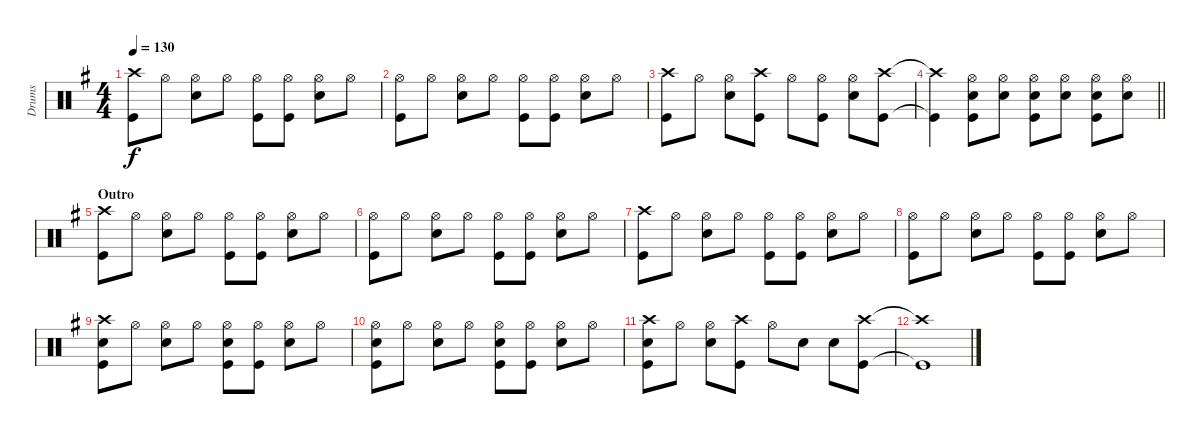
\track ("Drums" "Drums") {instrument percussion}
\staff {score}
\articulation defaults
\ts (4 4)
\tempo 130
\clef neutral
\ks g
("Crash high (hit)" "Kick (hit)").8{dy f} "Hi-Hat (open)".8 ("Hi-Hat (open)" "Snare (hit) 2").8 "Hi-Hat (open)".8 ("Hi-Hat (open)" "Kick (hit)").8 ("Hi-Hat (open)" "Kick (hit)").8 ("Hi-Hat (open)" "Snare (hit) 2").8 "Hi-Hat (open)".8 |
("Hi-Hat (open)" "Kick (hit)").8 "Hi-Hat (open)".8 ("Hi-Hat (open)" "Snare (hit) 2").8 "Hi-Hat (open)".8 ("Hi-Hat (open)" "Kick (hit)").8 ("Hi-Hat (open)" "Kick (hit)").8 ("Hi-Hat (open)" "Snare (hit) 2").8 "Hi-Hat (open)".8 |
("Crash high (hit)" "Kick (hit)").8 "Hi-Hat (open)".8 ("Hi-Hat (open)" "Snare (hit) 2").8 ("Crash high (hit)" "Kick (hit)").8 "Hi-Hat (open)".8 ("Hi-Hat (open)" "Kick (hit)").8 ("Hi-Hat (open)" "Snare (hit) 2").8 ("Crash high (hit)" "Kick (hit)").8 |
\barLineRight lightlight
("Crash high (hit)"{t} "Kick (hit)"{t}).4 ("Hi-Hat (open)" "Snare (hit) 2" "Kick (hit)").8 ("Hi-Hat (open)" "Snare (hit) 2").8 ("Hi-Hat (open)" "Snare (hit) 2" "Kick (hit)").8 ("Hi-Hat (open)" "Snare (hit) 2").8 ("Hi-Hat (open)" "Snare (hit) 2" "Kick (hit)").8 ("Hi-Hat (open)" "Snare (hit) 2").8 |
\section ("" "Outro")
("Crash high (hit)" "Kick (hit)").8 "Hi-Hat (open)".8 ("Hi-Hat (open)" "Snare (hit) 2").8 "Hi-Hat (open)".8 ("Hi-Hat (open)" "Kick (hit)").8 ("Hi-Hat (open)" "Kick (hit)").8 ("Hi-Hat (open)" "Snare (hit) 2").8 "Hi-Hat (open)".8 |
("Hi-Hat (open)" "Kick (hit)").8 "Hi-Hat (open)".8 ("Hi-Hat (open)" "Snare (hit) 2").8 "Hi-Hat (open)".8 ("Hi-Hat (open)" "Kick (hit)").8 ("Hi-Hat (open)" "Kick (hit)").8 ("Hi-Hat (open)" "Snare (hit) 2").8 "Hi-Hat (open)".8 |
("Crash high (hit)" "Kick (hit)").8 "Hi-Hat (open)".8 ("Hi-Hat (open)" "Snare (hit) 2").8 "Hi-Hat (open)".8 ("Hi-Hat (open)" "Kick (hit)").8 ("Hi-Hat (open)" "Kick (hit)").8 ("Hi-Hat (open)" "Snare (hit) 2").8 "Hi-Hat (open)".8 |
("Hi-Hat (open)" "Kick (hit)").8 "Hi-Hat (open)".8 ("Hi-Hat (open)" "Snare (hit) 2").8 "Hi-Hat (open)".8 ("Hi-Hat (open)" "Kick (hit)").8 ("Hi-Hat (open)" "Kick (hit)").8 ("Hi-Hat (open)" "Snare (hit) 2").8 "Hi-Hat (open)".8 |
("Crash high (hit)" "Snare (hit) 2" "Kick (hit)").8 "Hi-Hat (open)".8 ("Hi-Hat (open)" "Snare (hit) 2").8 "Hi-Hat (open)".8 ("Hi-Hat (open)" "Snare (hit) 2" "Kick (hit)").8 ("Hi-Hat (open)" "Kick (hit)").8 ("Hi-Hat (open)" "Snare (hit) 2").8 "Hi-Hat (open)".8 |
("Hi-Hat (open)" "Snare (hit) 2" "Kick (hit)").8 "Hi-Hat (open)".8 ("Hi-Hat (open)" "Snare (hit) 2").8 "Hi-Hat (open)".8 ("Hi-Hat (open)" "Snare (hit) 2" "Kick (hit)").8 ("Hi-Hat (open)" "Kick (hit)").8 ("Hi-Hat (open)" "Snare (hit) 2").8 "Hi-Hat (open)".8 |
("Crash high (hit)" "Snare (hit) 2" "Kick (hit)").8 "Hi-Hat (open)".8 ("Hi-Hat (open)" "Snare (hit) 2").8 ("Crash high (hit)" "Kick (hit)").8 "Hi-Hat (open)".8 "Snare (hit) 2".8 "Snare (hit) 2".8 ("Crash high (hit)" "Kick (hit)").8 |
("Crash high (hit)"{t} "Kick (hit)"{t}).1
